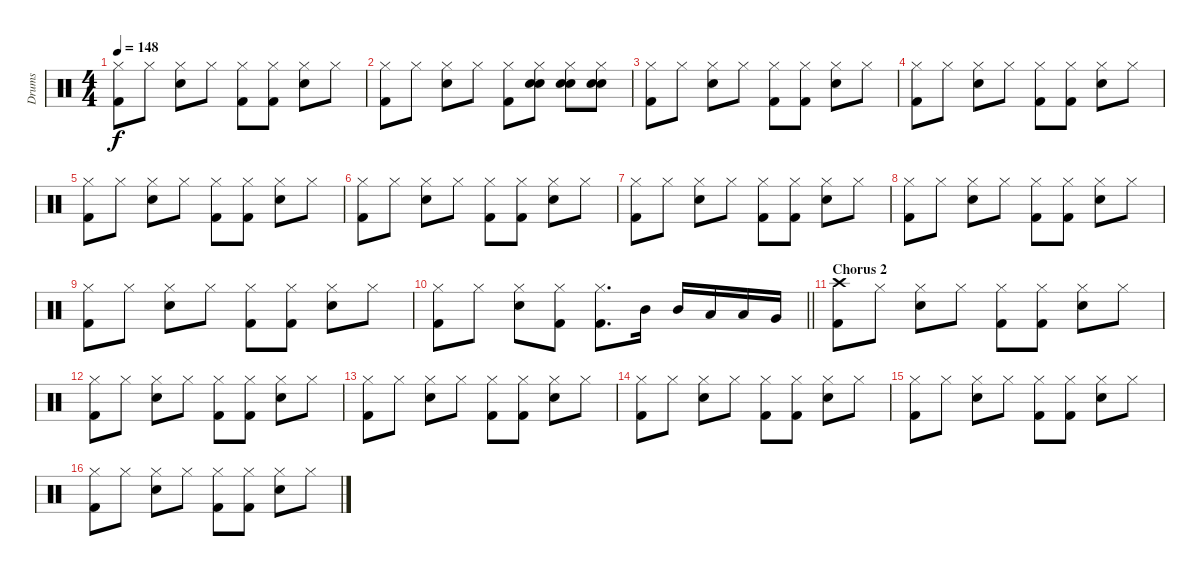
\track ("Drums " "Drums ") {instrument percussion}
\staff {score}
\articulation defaults
\ts (4 4)
\tempo 148
\clef neutral
\ks c
("Hi-Hat (closed)" "Kick (hit) 2").8{dy f} "Hi-Hat (closed)".8 ("Hi-Hat (closed)" "Snare (hit) 2").8 "Hi-Hat (closed)".8 ("Hi-Hat (closed)" "Kick (hit) 2").8 ("Hi-Hat (closed)" "Kick (hit) 2").8 ("Hi-Hat (closed)" "Snare (hit) 2").8 "Hi-Hat (closed)".8 |
("Hi-Hat (closed)" "Kick (hit) 2").8 "Hi-Hat (closed)".8 ("Hi-Hat (closed)" "Snare (hit) 2").8 "Hi-Hat (closed)".8 ("Hi-Hat (closed)" "Kick (hit) 2").8 ("Hand Clap (hit)" "Hi-Hat (closed)" "Snare (hit) 2").8 ("Hand Clap (hit)" "Hi-Hat (closed)" "Snare (hit) 2").8 ("Hand Clap (hit)" "Hi-Hat (closed)" "Snare (hit) 2").8 |
("Hi-Hat (closed)" "Kick (hit) 2").8 "Hi-Hat (closed)".8 ("Hi-Hat (closed)" "Snare (hit) 2").8 "Hi-Hat (closed)".8 ("Hi-Hat (closed)" "Kick (hit) 2").8 ("Hi-Hat (closed)" "Kick (hit) 2").8 ("Hi-Hat (closed)" "Snare (hit) 2").8 "Hi-Hat (closed)".8 |
("Hi-Hat (closed)" "Kick (hit) 2").8 "Hi-Hat (closed)".8 ("Hi-Hat (closed)" "Snare (hit) 2").8 "Hi-Hat (closed)".8 ("Hi-Hat (closed)" "Kick (hit) 2").8 ("Hi-Hat (closed)" "Kick (hit) 2").8 ("Hi-Hat (closed)" "Snare (hit) 2").8 "Hi-Hat (closed)".8 |
("Hi-Hat (closed)" "Kick (hit) 2").8 "Hi-Hat (closed)".8 ("Hi-Hat (closed)" "Snare (hit) 2").8 "Hi-Hat (closed)".8 ("Hi-Hat (closed)" "Kick (hit) 2").8 ("Hi-Hat (closed)" "Kick (hit) 2").8 ("Hi-Hat (closed)" "Snare (hit) 2").8 "Hi-Hat (closed)".8 |
("Hi-Hat (closed)" "Kick (hit) 2").8 "Hi-Hat (closed)".8 ("Hi-Hat (closed)" "Snare (hit) 2").8 "Hi-Hat (closed)".8 ("Hi-Hat (closed)" "Kick (hit) 2").8 ("Hi-Hat (closed)" "Kick (hit) 2").8 ("Hi-Hat (closed)" "Snare (hit) 2").8 "Hi-Hat (closed)".8 |
("Hi-Hat (closed)" "Kick (hit) 2").8 "Hi-Hat (closed)".8 ("Hi-Hat (closed)" "Snare (hit) 2").8 "Hi-Hat (closed)".8 ("Hi-Hat (closed)" "Kick (hit) 2").8 ("Hi-Hat (closed)" "Kick (hit) 2").8 ("Hi-Hat (closed)" "Snare (hit) 2").8 "Hi-Hat (closed)".8 |
("Hi-Hat (closed)" "Kick (hit) 2").8 "Hi-Hat (closed)".8 ("Hi-Hat (closed)" "Snare (hit) 2").8 "Hi-Hat (closed)".8 ("Hi-Hat (closed)" "Kick (hit) 2").8 ("Hi-Hat (closed)" "Kick (hit) 2").8 ("Hi-Hat (closed)" "Snare (hit) 2").8 "Hi-Hat (closed)".8 |
("Hi-Hat (closed)" "Kick (hit) 2").8 "Hi-Hat (closed)".8 ("Hi-Hat (closed)" "Snare (hit) 2").8 "Hi-Hat (closed)".8 ("Hi-Hat (closed)" "Kick (hit) 2").8 ("Hi-Hat (closed)" "Kick (hit) 2").8 ("Hi-Hat (closed)" "Snare (hit) 2").8 "Hi-Hat (closed)".8 |
\barLineRight lightlight
("Hi-Hat (closed)" "Kick (hit) 2").8 "Hi-Hat (closed)".8 ("Hi-Hat (closed)" "Snare (hit) 2").8 ("Hi-Hat (closed)" "Kick (hit) 2").8 ("Hi-Hat (closed)" "Kick (hit) 2").8{d} "Mid Tom (hit)".16 "Mid Tom (hit)".16 "Low Tom (hit)".16 "Low Tom (hit)".16 "Very Low Tom (hit)".16 |
\section ("" "Chorus 2")
("Crash high (hit)" "Kick (hit) 2").8 "Hi-Hat (closed)".8 ("Hi-Hat (closed)" "Snare (hit) 2").8 "Hi-Hat (closed)".8 ("Hi-Hat (closed)" "Kick (hit) 2").8 ("Hi-Hat (closed)" "Kick (hit) 2").8 ("Hi-Hat (closed)" "Snare (hit) 2").8 "Hi-Hat (closed)".8 |
("Hi-Hat (closed)" "Kick (hit) 2").8 "Hi-Hat (closed)".8 ("Hi-Hat (closed)" "Snare (hit) 2").8 "Hi-Hat (closed)".8 ("Hi-Hat (closed)" "Kick (hit) 2").8 ("Hi-Hat (closed)" "Kick (hit) 2").8 ("Hi-Hat (closed)" "Snare (hit) 2").8 "Hi-Hat (closed)".8 |
("Hi-Hat (closed)" "Kick (hit) 2").8 "Hi-Hat (closed)".8 ("Hi-Hat (closed)" "Snare (hit) 2").8 "Hi-Hat (closed)".8 ("Hi-Hat (closed)" "Kick (hit) 2").8 ("Hi-Hat (closed)" "Kick (hit) 2").8 ("Hi-Hat (closed)" "Snare (hit) 2").8 "Hi-Hat (closed)".8 |
("Hi-Hat (closed)" "Kick (hit) 2").8 "Hi-Hat (closed)".8 ("Hi-Hat (closed)" "Snare (hit) 2").8 "Hi-Hat (closed)".8 ("Hi-Hat (closed)" "Kick (hit) 2").8 ("Hi-Hat (closed)" "Kick (hit) 2").8 ("Hi-Hat (closed)" "Snare (hit) 2").8 "Hi-Hat (closed)".8 |
("Hi-Hat (closed)" "Kick (hit) 2").8 "Hi-Hat (closed)".8 ("Hi-Hat (closed)" "Snare (hit) 2").8 "Hi-Hat (closed)".8 ("Hi-Hat (closed)" "Kick (hit) 2").8 ("Hi-Hat (closed)" "Kick (hit) 2").8 ("Hi-Hat (closed)" "Snare (hit) 2").8 "Hi-Hat (closed)".8 |
("Hi-Hat (closed)" "Kick (hit) 2").8 "Hi-Hat (closed)".8 ("Hi-Hat (closed)" "Snare (hit) 2").8 "Hi-Hat (closed)".8 ("Hi-Hat (closed)" "Kick (hit) 2").8 ("Hi-Hat (closed)" "Kick (hit) 2").8 ("Hi-Hat (closed)" "Snare (hit) 2").8 "Hi-Hat (closed)".8
